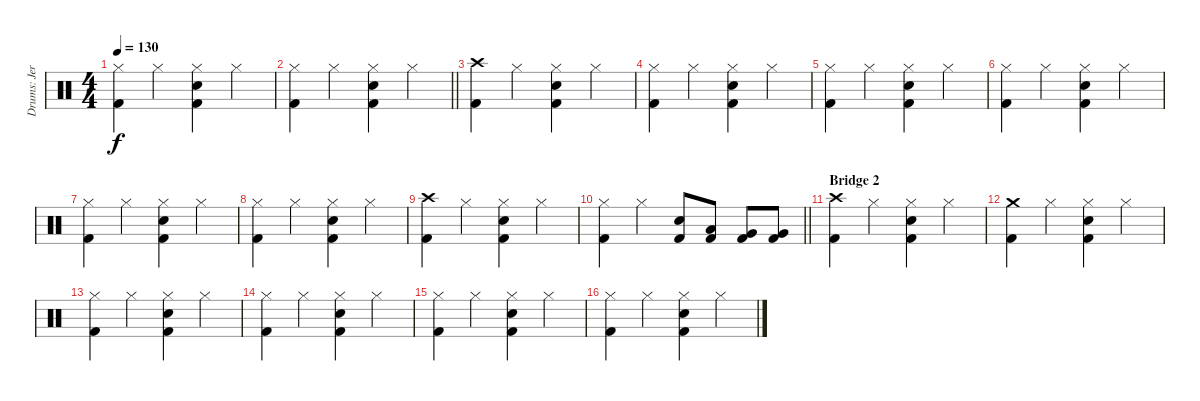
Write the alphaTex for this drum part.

\track ("Drums: Jere Luokkamäki" "Drums: Jer") {instrument percussion}
\staff {score}
\articulation defaults
\ts (4 4)
\tempo 130
\clef neutral
\ks aminor
("Hi-Hat (closed)" "Kick (hit) 2").4{dy f} "Hi-Hat (closed)".4 ("Hi-Hat (closed)" "Electric Snare (hit)" "Kick (hit) 2").4 "Hi-Hat (closed)".4 |
\barLineRight lightlight
("Hi-Hat (closed)" "Kick (hit) 2").4 "Hi-Hat (closed)".4 ("Hi-Hat (closed)" "Electric Snare (hit)" "Kick (hit) 2").4 "Hi-Hat (closed)".4 |
("Crash high (hit)" "Kick (hit) 2").4 "Hi-Hat (closed)".4 ("Hi-Hat (closed)" "Electric Snare (hit)" "Kick (hit) 2").4 "Hi-Hat (closed)".4 |
("Hi-Hat (closed)" "Kick (hit) 2").4 "Hi-Hat (closed)".4 ("Hi-Hat (closed)" "Electric Snare (hit)" "Kick (hit) 2").4 "Hi-Hat (closed)".4 |
("Hi-Hat (closed)" "Kick (hit) 2").4 "Hi-Hat (closed)".4 ("Hi-Hat (closed)" "Electric Snare (hit)" "Kick (hit) 2").4 "Hi-Hat (closed)".4 |
("Hi-Hat (closed)" "Kick (hit) 2").4 "Hi-Hat (closed)".4 ("Hi-Hat (closed)" "Electric Snare (hit)" "Kick (hit) 2").4 "Hi-Hat (closed)".4 |
("Hi-Hat (closed)" "Kick (hit) 2").4 "Hi-Hat (closed)".4 ("Hi-Hat (closed)" "Electric Snare (hit)" "Kick (hit) 2").4 "Hi-Hat (closed)".4 |
("Hi-Hat (closed)" "Kick (hit) 2").4 "Hi-Hat (closed)".4 ("Hi-Hat (closed)" "Electric Snare (hit)" "Kick (hit) 2").4 "Hi-Hat (closed)".4 |
("Crash high (hit)" "Kick (hit) 2").4 "Hi-Hat (closed)".4 ("Hi-Hat (closed)" "Electric Snare (hit)" "Kick (hit) 2").4 "Hi-Hat (closed)".4 |
\barLineRight lightlight
("Hi-Hat (closed)" "Kick (hit) 2").4 "Hi-Hat (closed)".4 ("Electric Snare (hit)" "Kick (hit) 2").8 ("Low Tom (hit)" "Kick (hit) 2").8 ("Very Low Tom (hit)" "Kick (hit) 2").8 ("Very Low Tom (hit)" "Kick (hit) 2").8 |
\section ("" "Bridge 2")
("Crash high (hit)" "Kick (hit) 2").4 "Hi-Hat (closed)".4 ("Hi-Hat (closed)" "Electric Snare (hit)" "Kick (hit) 2").4 "Hi-Hat (closed)".4 |
("Crash medium (hit)" "Kick (hit) 2").4 "Hi-Hat (closed)".4 ("Hi-Hat (closed)" "Electric Snare (hit)" "Kick (hit) 2").4 "Hi-Hat (closed)".4 |
("Hi-Hat (closed)" "Kick (hit) 2").4 "Hi-Hat (closed)".4 ("Hi-Hat (closed)" "Electric Snare (hit)" "Kick (hit) 2").4 "Hi-Hat (closed)".4 |
("Hi-Hat (closed)" "Kick (hit) 2").4 "Hi-Hat (closed)".4 ("Hi-Hat (closed)" "Electric Snare (hit)" "Kick (hit) 2").4 "Hi-Hat (closed)".4 |
("Hi-Hat (closed)" "Kick (hit) 2").4 "Hi-Hat (closed)".4 ("Hi-Hat (closed)" "Electric Snare (hit)" "Kick (hit) 2").4 "Hi-Hat (closed)".4 |
("Hi-Hat (closed)" "Kick (hit) 2").4 "Hi-Hat (closed)".4 ("Hi-Hat (closed)" "Electric Snare (hit)" "Kick (hit) 2").4 "Hi-Hat (closed)".4
